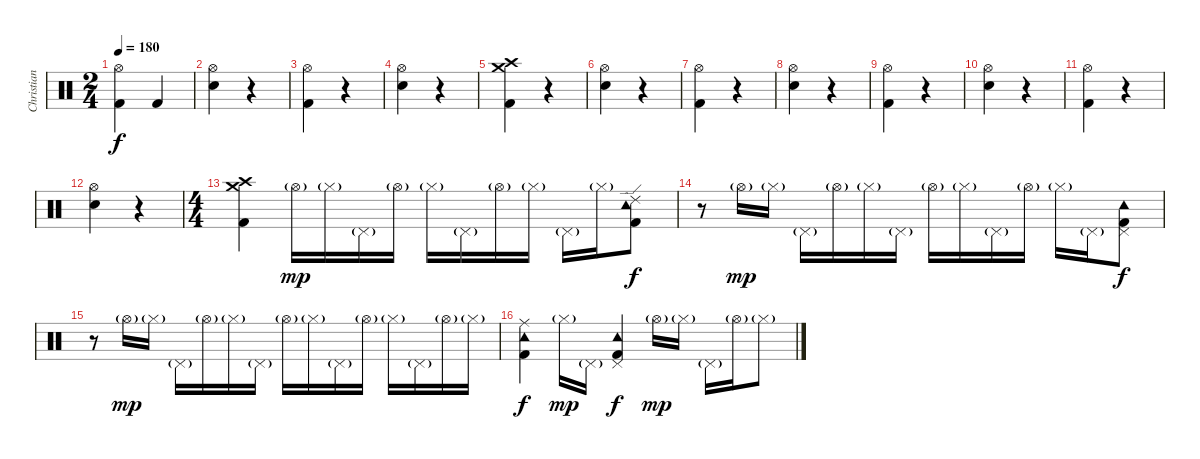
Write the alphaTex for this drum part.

\track ("Christian Meyer" "Christian ") {instrument percussion}
\staff {score}
\articulation defaults
\ts (2 4)
\tempo 180
\clef neutral
\ks c
("Hi-Hat (open)" "Kick (hit) 2").4{dy f} "Kick (hit) 2".4 |
("Hi-Hat (open)" "Electric Snare (hit)").4 r.4 |
("Hi-Hat (open)" "Kick (hit) 2").4 r.4 |
("Hi-Hat (open)" "Electric Snare (hit)").4 r.4 |
("Crash high (hit)" "Crash medium (hit)" "Kick (hit) 2").4 r.4 |
("Hi-Hat (open)" "Electric Snare (hit)").4 r.4 |
("Hi-Hat (open)" "Kick (hit) 2").4 r.4 |
("Hi-Hat (open)" "Electric Snare (hit)").4 r.4 |
("Hi-Hat (open)" "Kick (hit) 2").4 r.4 |
("Hi-Hat (open)" "Electric Snare (hit)").4 r.4 |
("Hi-Hat (open)" "Kick (hit) 2").4 r.4 |
("Hi-Hat (open)" "Electric Snare (hit)").4 r.4 |
\ts (4 4)
("Crash high (hit)" "Crash medium (hit)" "Kick (hit) 2").4 "Hi-Hat (open)"{g}.16{dy mp} "Hi-Hat (closed)"{g}.16 "Pedal Hi-Hat (hit)"{g}.16 "Hi-Hat (open)"{g}.16 "Hi-Hat (closed)"{g}.16 "Pedal Hi-Hat (hit)"{g}.16 "Hi-Hat (open)"{g}.16 "Hi-Hat (closed)"{g}.16 "Pedal Hi-Hat (hit)"{g}.16 "Hi-Hat (closed)"{g}.16 ("Tambourine (hit)" "Ride (edge) 2" "Kick (hit) 2").8{dy f} |
r.8 "Hi-Hat (open)"{g}.16{dy mp} "Hi-Hat (closed)"{g}.16 "Pedal Hi-Hat (hit)"{g}.16 "Hi-Hat (open)"{g}.16 "Hi-Hat (closed)"{g}.16 "Pedal Hi-Hat (hit)"{g}.16 "Hi-Hat (open)"{g}.16 "Hi-Hat (closed)"{g}.16 "Pedal Hi-Hat (hit)"{g}.16 "Hi-Hat (open)"{g}.16 "Hi-Hat (closed)"{g}.16 "Pedal Hi-Hat (hit)"{g}.16 ("Tambourine (hit)" "Pedal Hi-Hat (hit)" "Kick (hit) 2").8{dy f} |
r.8 "Hi-Hat (open)"{g}.16{dy mp} "Hi-Hat (closed)"{g}.16 "Pedal Hi-Hat (hit)"{g}.16 "Hi-Hat (open)"{g}.16 "Hi-Hat (closed)"{g}.16 "Pedal Hi-Hat (hit)"{g}.16 "Hi-Hat (open)"{g}.16 "Hi-Hat (closed)"{g}.16 "Pedal Hi-Hat (hit)"{g}.16 "Hi-Hat (open)"{g}.16 "Hi-Hat (closed)"{g}.16 "Pedal Hi-Hat (hit)"{g}.16 "Hi-Hat (open)"{g}.16 "Hi-Hat (closed)"{g}.16 |
("Tambourine (hit)" "Ride (middle)" "Kick (hit) 2").4{dy f} "Hi-Hat (closed)"{g}.16{dy mp} "Pedal Hi-Hat (hit)"{g}.16 ("Tambourine (hit)" "Pedal Hi-Hat (hit)" "Kick (hit) 2").4{dy f} "Hi-Hat (open)"{g}.16{dy mp} "Hi-Hat (closed)"{g}.16 "Pedal Hi-Hat (hit)"{g}.16 "Hi-Hat (open)"{g}.16 "Hi-Hat (closed)"{g}.8
